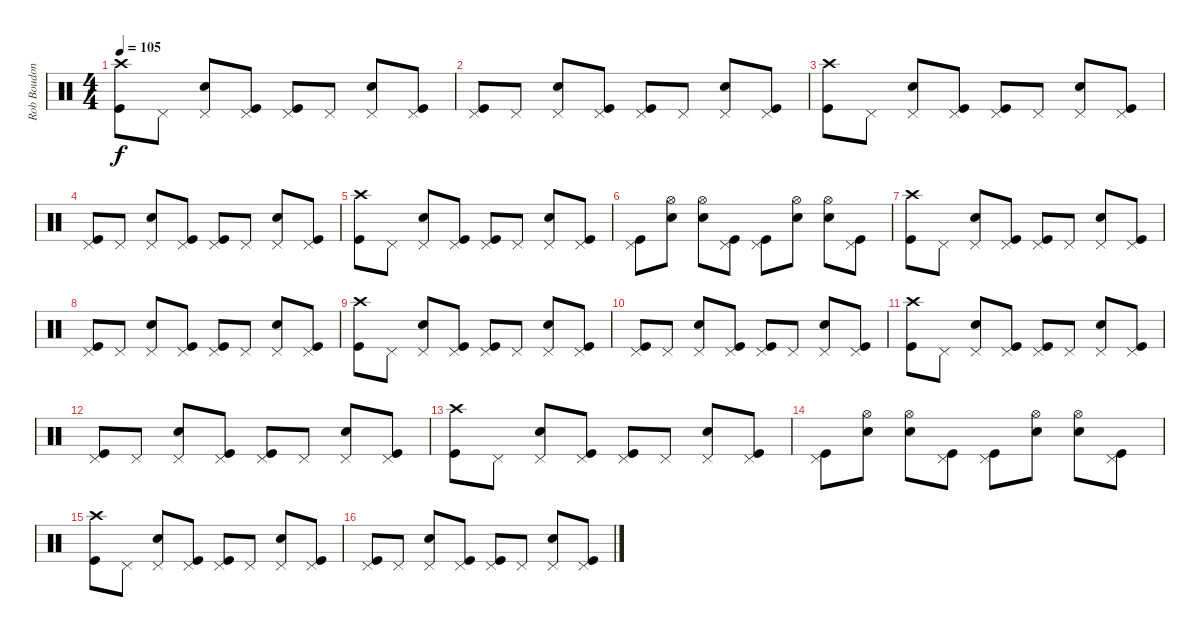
\track ("Rob Boudon [Drums]" "Rob Boudon") {instrument percussion}
\staff {score}
\articulation defaults
\ts (4 4)
\tempo 105
\clef neutral
\ks c
("Crash high (hit)" "Kick (hit)").8{dy f} "Pedal Hi-Hat (hit)".8 ("Pedal Hi-Hat (hit)" "Electric Snare (hit)").8 ("Pedal Hi-Hat (hit)" "Kick (hit)").8 ("Pedal Hi-Hat (hit)" "Kick (hit)").8 "Pedal Hi-Hat (hit)".8 ("Pedal Hi-Hat (hit)" "Electric Snare (hit)").8 ("Pedal Hi-Hat (hit)" "Kick (hit)").8 |
("Pedal Hi-Hat (hit)" "Kick (hit)").8 "Pedal Hi-Hat (hit)".8 ("Electric Snare (hit)" "Pedal Hi-Hat (hit)").8 ("Pedal Hi-Hat (hit)" "Kick (hit)").8 ("Pedal Hi-Hat (hit)" "Kick (hit)").8 "Pedal Hi-Hat (hit)".8 ("Pedal Hi-Hat (hit)" "Electric Snare (hit)").8 ("Pedal Hi-Hat (hit)" "Kick (hit)").8 |
("Crash high (hit)" "Kick (hit)").8 "Pedal Hi-Hat (hit)".8 ("Pedal Hi-Hat (hit)" "Electric Snare (hit)").8 ("Pedal Hi-Hat (hit)" "Kick (hit)").8 ("Pedal Hi-Hat (hit)" "Kick (hit)").8 "Pedal Hi-Hat (hit)".8 ("Pedal Hi-Hat (hit)" "Electric Snare (hit)").8 ("Pedal Hi-Hat (hit)" "Kick (hit)").8 |
("Pedal Hi-Hat (hit)" "Kick (hit)").8 "Pedal Hi-Hat (hit)".8 ("Electric Snare (hit)" "Pedal Hi-Hat (hit)").8 ("Pedal Hi-Hat (hit)" "Kick (hit)").8 ("Pedal Hi-Hat (hit)" "Kick (hit)").8 "Pedal Hi-Hat (hit)".8 ("Pedal Hi-Hat (hit)" "Electric Snare (hit)").8 ("Pedal Hi-Hat (hit)" "Kick (hit)").8 |
("Crash high (hit)" "Kick (hit)").8 "Pedal Hi-Hat (hit)".8 ("Pedal Hi-Hat (hit)" "Electric Snare (hit)").8 ("Pedal Hi-Hat (hit)" "Kick (hit)").8 ("Pedal Hi-Hat (hit)" "Kick (hit)").8 "Pedal Hi-Hat (hit)".8 ("Pedal Hi-Hat (hit)" "Electric Snare (hit)").8 ("Pedal Hi-Hat (hit)" "Kick (hit)").8 |
("Pedal Hi-Hat (hit)" "Kick (hit)").8 ("Hi-Hat (open)" "Electric Snare (hit)").8 ("Electric Snare (hit)" "Hi-Hat (open)").8 ("Pedal Hi-Hat (hit)" "Kick (hit)").8 ("Pedal Hi-Hat (hit)" "Kick (hit)").8 ("Hi-Hat (open)" "Electric Snare (hit)").8 ("Hi-Hat (open)" "Electric Snare (hit)").8 ("Pedal Hi-Hat (hit)" "Kick (hit)").8 |
("Crash high (hit)" "Kick (hit)").8 "Pedal Hi-Hat (hit)".8 ("Pedal Hi-Hat (hit)" "Electric Snare (hit)").8 ("Pedal Hi-Hat (hit)" "Kick (hit)").8 ("Pedal Hi-Hat (hit)" "Kick (hit)").8 "Pedal Hi-Hat (hit)".8 ("Pedal Hi-Hat (hit)" "Electric Snare (hit)").8 ("Pedal Hi-Hat (hit)" "Kick (hit)").8 |
("Pedal Hi-Hat (hit)" "Kick (hit)").8 "Pedal Hi-Hat (hit)".8 ("Electric Snare (hit)" "Pedal Hi-Hat (hit)").8 ("Pedal Hi-Hat (hit)" "Kick (hit)").8 ("Pedal Hi-Hat (hit)" "Kick (hit)").8 "Pedal Hi-Hat (hit)".8 ("Pedal Hi-Hat (hit)" "Electric Snare (hit)").8 ("Pedal Hi-Hat (hit)" "Kick (hit)").8 |
("Crash high (hit)" "Kick (hit)").8 "Pedal Hi-Hat (hit)".8 ("Pedal Hi-Hat (hit)" "Electric Snare (hit)").8 ("Pedal Hi-Hat (hit)" "Kick (hit)").8 ("Pedal Hi-Hat (hit)" "Kick (hit)").8 "Pedal Hi-Hat (hit)".8 ("Pedal Hi-Hat (hit)" "Electric Snare (hit)").8 ("Pedal Hi-Hat (hit)" "Kick (hit)").8 |
("Pedal Hi-Hat (hit)" "Kick (hit)").8 "Pedal Hi-Hat (hit)".8 ("Electric Snare (hit)" "Pedal Hi-Hat (hit)").8 ("Pedal Hi-Hat (hit)" "Kick (hit)").8 ("Pedal Hi-Hat (hit)" "Kick (hit)").8 "Pedal Hi-Hat (hit)".8 ("Pedal Hi-Hat (hit)" "Electric Snare (hit)").8 ("Pedal Hi-Hat (hit)" "Kick (hit)").8 |
("Crash high (hit)" "Kick (hit)").8 "Pedal Hi-Hat (hit)".8 ("Pedal Hi-Hat (hit)" "Electric Snare (hit)").8 ("Pedal Hi-Hat (hit)" "Kick (hit)").8 ("Pedal Hi-Hat (hit)" "Kick (hit)").8 "Pedal Hi-Hat (hit)".8 ("Pedal Hi-Hat (hit)" "Electric Snare (hit)").8 ("Pedal Hi-Hat (hit)" "Kick (hit)").8 |
("Pedal Hi-Hat (hit)" "Kick (hit)").8 "Pedal Hi-Hat (hit)".8 ("Electric Snare (hit)" "Pedal Hi-Hat (hit)").8 ("Pedal Hi-Hat (hit)" "Kick (hit)").8 ("Pedal Hi-Hat (hit)" "Kick (hit)").8 "Pedal Hi-Hat (hit)".8 ("Pedal Hi-Hat (hit)" "Electric Snare (hit)").8 ("Pedal Hi-Hat (hit)" "Kick (hit)").8 |
("Crash high (hit)" "Kick (hit)").8 "Pedal Hi-Hat (hit)".8 ("Pedal Hi-Hat (hit)" "Electric Snare (hit)").8 ("Pedal Hi-Hat (hit)" "Kick (hit)").8 ("Pedal Hi-Hat (hit)" "Kick (hit)").8 "Pedal Hi-Hat (hit)".8 ("Pedal Hi-Hat (hit)" "Electric Snare (hit)").8 ("Pedal Hi-Hat (hit)" "Kick (hit)").8 |
("Pedal Hi-Hat (hit)" "Kick (hit)").8 ("Hi-Hat (open)" "Electric Snare (hit)").8 ("Electric Snare (hit)" "Hi-Hat (open)").8 ("Pedal Hi-Hat (hit)" "Kick (hit)").8 ("Pedal Hi-Hat (hit)" "Kick (hit)").8 ("Hi-Hat (open)" "Electric Snare (hit)").8 ("Hi-Hat (open)" "Electric Snare (hit)").8 ("Pedal Hi-Hat (hit)" "Kick (hit)").8 |
("Crash high (hit)" "Kick (hit)").8 "Pedal Hi-Hat (hit)".8 ("Pedal Hi-Hat (hit)" "Electric Snare (hit)").8 ("Pedal Hi-Hat (hit)" "Kick (hit)").8 ("Pedal Hi-Hat (hit)" "Kick (hit)").8 "Pedal Hi-Hat (hit)".8 ("Pedal Hi-Hat (hit)" "Electric Snare (hit)").8 ("Pedal Hi-Hat (hit)" "Kick (hit)").8 |
("Pedal Hi-Hat (hit)" "Kick (hit)").8 "Pedal Hi-Hat (hit)".8 ("Electric Snare (hit)" "Pedal Hi-Hat (hit)").8 ("Pedal Hi-Hat (hit)" "Kick (hit)").8 ("Pedal Hi-Hat (hit)" "Kick (hit)").8 "Pedal Hi-Hat (hit)".8 ("Pedal Hi-Hat (hit)" "Electric Snare (hit)").8 ("Pedal Hi-Hat (hit)" "Kick (hit)").8
